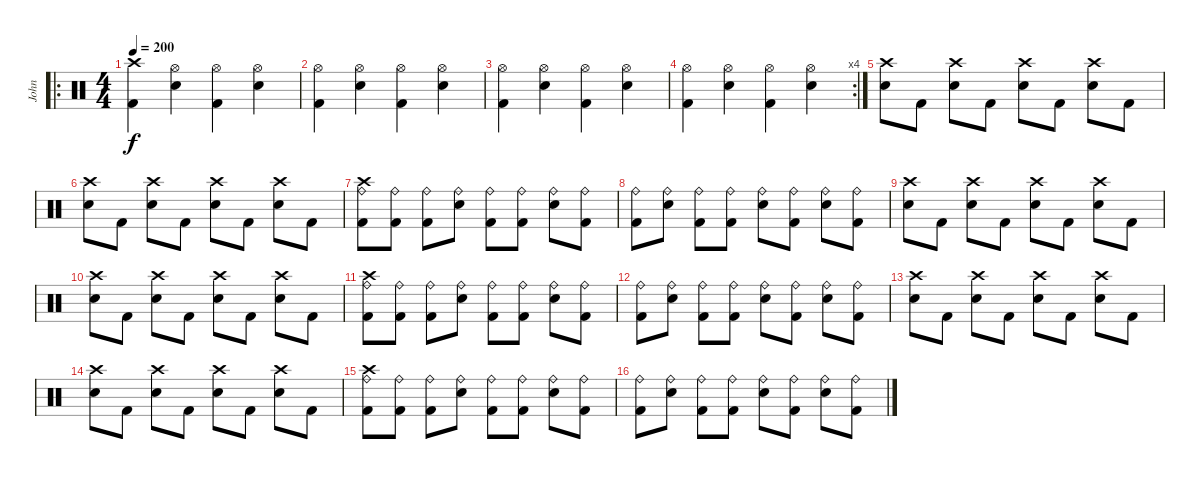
\track ("John" "John") {instrument percussion}
\staff {score}
\articulation defaults
\ro
\ts (4 4)
\tempo 200
\clef neutral
\ks c
("Crash high (hit)" "Kick (hit) 2").4{dy f} ("Hi-Hat (open)" "Electric Snare (hit)").4 ("Hi-Hat (open)" "Kick (hit) 2").4 ("Hi-Hat (open)" "Electric Snare (hit)").4 |
("Hi-Hat (open)" "Kick (hit) 2").4 ("Hi-Hat (open)" "Electric Snare (hit)").4 ("Hi-Hat (open)" "Kick (hit) 2").4 ("Hi-Hat (open)" "Electric Snare (hit)").4 |
("Hi-Hat (open)" "Kick (hit) 2").4 ("Hi-Hat (open)" "Electric Snare (hit)").4 ("Hi-Hat (open)" "Kick (hit) 2").4 ("Hi-Hat (open)" "Electric Snare (hit)").4 |
\rc 4
("Hi-Hat (open)" "Kick (hit) 2").4 ("Hi-Hat (open)" "Electric Snare (hit)").4 ("Hi-Hat (open)" "Kick (hit) 2").4 ("Hi-Hat (open)" "Electric Snare (hit)").4 |
("Crash high (hit)" "Electric Snare (hit)").8 "Kick (hit) 2".8 ("Crash high (hit)" "Electric Snare (hit)").8 "Kick (hit) 2".8 ("Crash high (hit)" "Electric Snare (hit)").8 "Kick (hit) 2".8 ("Crash high (hit)" "Electric Snare (hit)").8 "Kick (hit) 2".8 |
("Crash high (hit)" "Electric Snare (hit)").8 "Kick (hit) 2".8 ("Crash high (hit)" "Electric Snare (hit)").8 "Kick (hit) 2".8 ("Crash high (hit)" "Electric Snare (hit)").8 "Kick (hit) 2".8 ("Crash high (hit)" "Electric Snare (hit)").8 "Kick (hit) 2".8 |
("Ride (bell)" "Crash high (hit)" "Kick (hit) 2").8 ("Ride (bell)" "Kick (hit) 2").8 ("Ride (bell)" "Kick (hit) 2").8 ("Ride (bell)" "Electric Snare (hit)").8 ("Ride (bell)" "Kick (hit) 2").8 ("Ride (bell)" "Kick (hit) 2").8 ("Ride (bell)" "Electric Snare (hit)").8 ("Ride (bell)" "Kick (hit) 2").8 |
("Ride (bell)" "Kick (hit) 2").8 ("Ride (bell)" "Electric Snare (hit)").8 ("Ride (bell)" "Kick (hit) 2").8 ("Ride (bell)" "Kick (hit) 2").8 ("Ride (bell)" "Electric Snare (hit)").8 ("Ride (bell)" "Kick (hit) 2").8 ("Ride (bell)" "Electric Snare (hit)").8 ("Ride (bell)" "Kick (hit) 2").8 |
("Crash high (hit)" "Electric Snare (hit)").8 "Kick (hit) 2".8 ("Crash high (hit)" "Electric Snare (hit)").8 "Kick (hit) 2".8 ("Crash high (hit)" "Electric Snare (hit)").8 "Kick (hit) 2".8 ("Crash high (hit)" "Electric Snare (hit)").8 "Kick (hit) 2".8 |
("Crash high (hit)" "Electric Snare (hit)").8 "Kick (hit) 2".8 ("Crash high (hit)" "Electric Snare (hit)").8 "Kick (hit) 2".8 ("Crash high (hit)" "Electric Snare (hit)").8 "Kick (hit) 2".8 ("Crash high (hit)" "Electric Snare (hit)").8 "Kick (hit) 2".8 |
("Ride (bell)" "Crash high (hit)" "Kick (hit) 2").8 ("Ride (bell)" "Kick (hit) 2").8 ("Ride (bell)" "Kick (hit) 2").8 ("Ride (bell)" "Electric Snare (hit)").8 ("Ride (bell)" "Kick (hit) 2").8 ("Ride (bell)" "Kick (hit) 2").8 ("Ride (bell)" "Electric Snare (hit)").8 ("Ride (bell)" "Kick (hit) 2").8 |
("Ride (bell)" "Kick (hit) 2").8 ("Ride (bell)" "Electric Snare (hit)").8 ("Ride (bell)" "Kick (hit) 2").8 ("Ride (bell)" "Kick (hit) 2").8 ("Ride (bell)" "Electric Snare (hit)").8 ("Ride (bell)" "Kick (hit) 2").8 ("Ride (bell)" "Electric Snare (hit)").8 ("Ride (bell)" "Kick (hit) 2").8 |
("Crash high (hit)" "Electric Snare (hit)").8 "Kick (hit) 2".8 ("Crash high (hit)" "Electric Snare (hit)").8 "Kick (hit) 2".8 ("Crash high (hit)" "Electric Snare (hit)").8 "Kick (hit) 2".8 ("Crash high (hit)" "Electric Snare (hit)").8 "Kick (hit) 2".8 |
("Crash high (hit)" "Electric Snare (hit)").8 "Kick (hit) 2".8 ("Crash high (hit)" "Electric Snare (hit)").8 "Kick (hit) 2".8 ("Crash high (hit)" "Electric Snare (hit)").8 "Kick (hit) 2".8 ("Crash high (hit)" "Electric Snare (hit)").8 "Kick (hit) 2".8 |
("Ride (bell)" "Crash high (hit)" "Kick (hit) 2").8 ("Ride (bell)" "Kick (hit) 2").8 ("Ride (bell)" "Kick (hit) 2").8 ("Ride (bell)" "Electric Snare (hit)").8 ("Ride (bell)" "Kick (hit) 2").8 ("Ride (bell)" "Kick (hit) 2").8 ("Ride (bell)" "Electric Snare (hit)").8 ("Ride (bell)" "Kick (hit) 2").8 |
("Ride (bell)" "Kick (hit) 2").8 ("Ride (bell)" "Electric Snare (hit)").8 ("Ride (bell)" "Kick (hit) 2").8 ("Ride (bell)" "Kick (hit) 2").8 ("Ride (bell)" "Electric Snare (hit)").8 ("Ride (bell)" "Kick (hit) 2").8 ("Ride (bell)" "Electric Snare (hit)").8 ("Ride (bell)" "Kick (hit) 2").8
